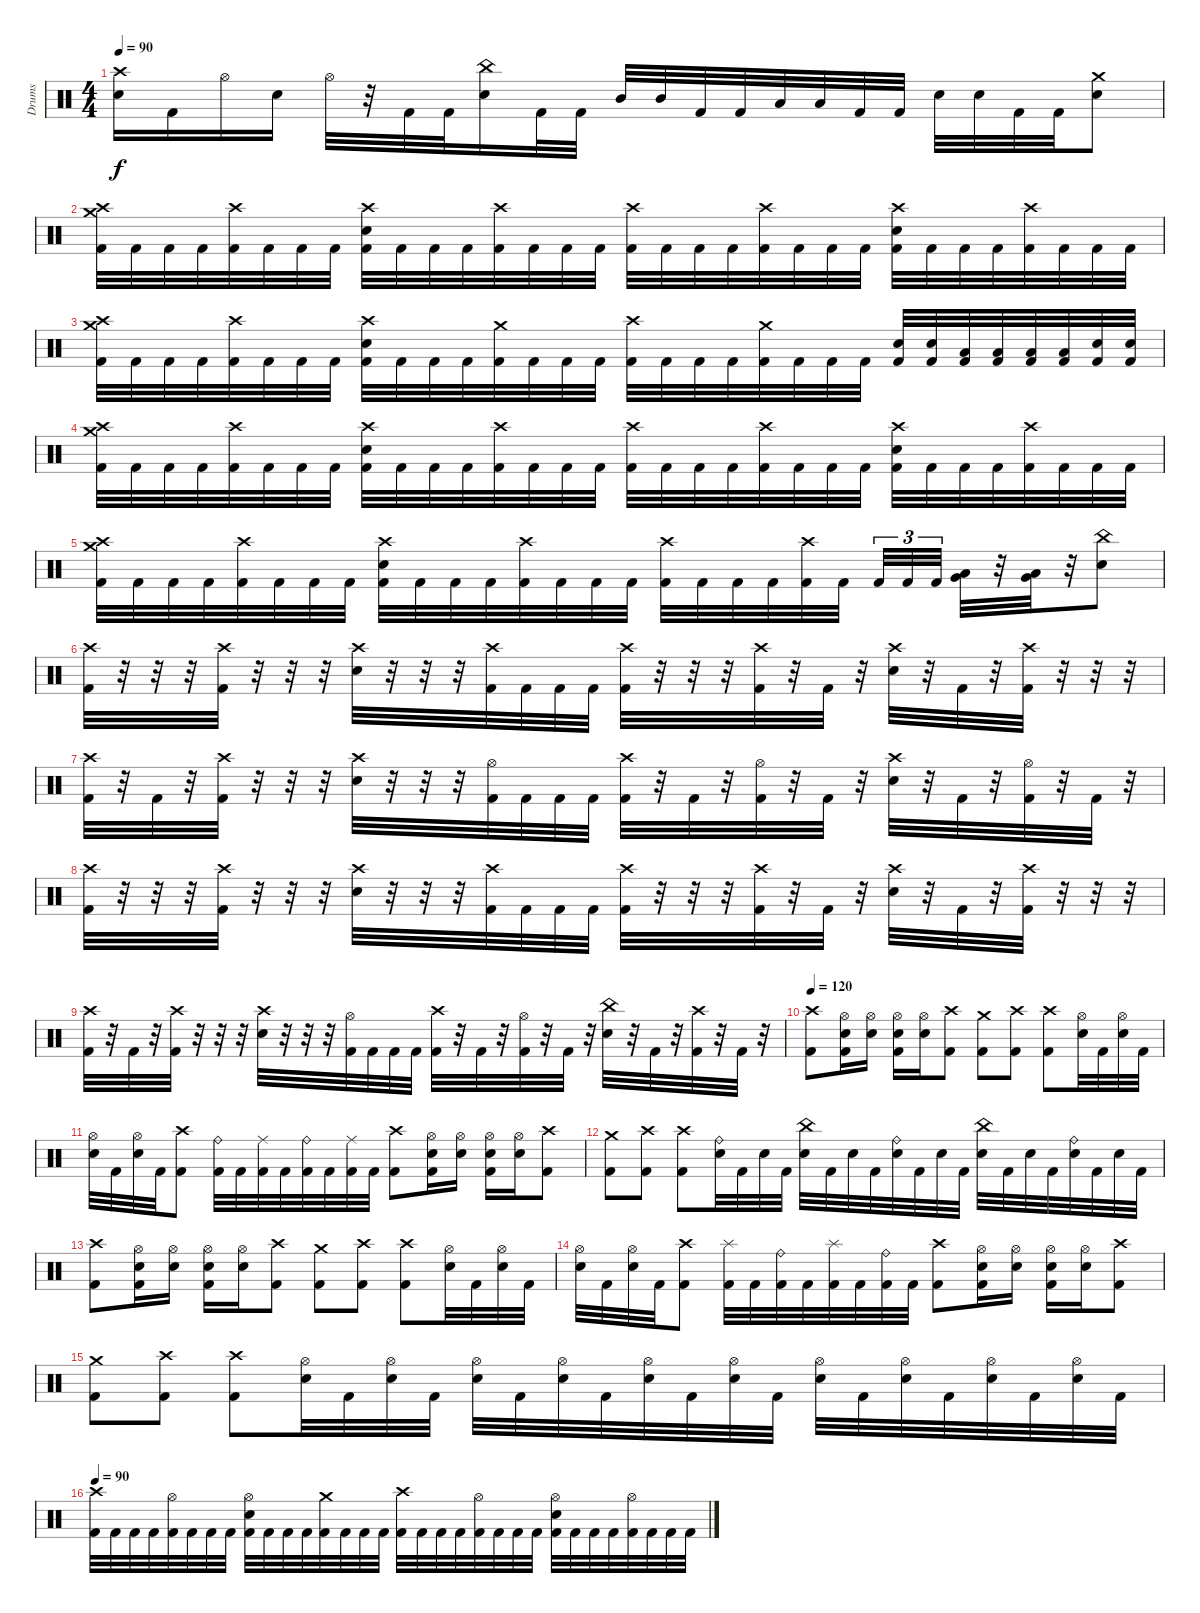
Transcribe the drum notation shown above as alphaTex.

\track ("Drums" "Drums") {instrument percussion}
\staff {score}
\articulation defaults
\ts (4 4)
\tempo 90
\clef neutral
\ks c
("Crash high (hit)" "Electric Snare (hit)").16{dy f} "Kick (hit) 2".16 "Hi-Hat (open)".16 "Electric Snare (hit)".16 "Hi-Hat (open)".32 r.32 "Kick (hit) 2".32 "Kick (hit) 2".32 ("China (hit)" "Electric Snare (hit)").16 "Kick (hit) 2".32 "Kick (hit) 2".32 "Mid Tom (hit)".32 "Mid Tom (hit)".32 "Kick (hit) 2".32 "Kick (hit) 2".32 "Low Tom (hit)".32 "Low Tom (hit)".32 "Kick (hit) 2".32 "Kick (hit) 2".32 "Electric Snare (hit)".32 "Electric Snare (hit)".32 "Kick (hit) 2".32 "Kick (hit) 2".32 ("Crash medium (hit)" "Electric Snare (hit)").8 |
("Crash high (hit)" "Crash medium (hit)" "Kick (hit) 2").32 "Kick (hit) 2".32 "Kick (hit) 2".32 "Kick (hit) 2".32 ("Crash high (hit)" "Kick (hit) 2").32 "Kick (hit) 2".32 "Kick (hit) 2".32 "Kick (hit) 2".32 ("Crash high (hit)" "Electric Snare (hit)" "Kick (hit) 2").32 "Kick (hit) 2".32 "Kick (hit) 2".32 "Kick (hit) 2".32 ("Crash high (hit)" "Kick (hit) 2").32 "Kick (hit) 2".32 "Kick (hit) 2".32 "Kick (hit) 2".32 ("Crash high (hit)" "Kick (hit) 2").32 "Kick (hit) 2".32 "Kick (hit) 2".32 "Kick (hit) 2".32 ("Crash high (hit)" "Kick (hit) 2").32 "Kick (hit) 2".32 "Kick (hit) 2".32 "Kick (hit) 2".32 ("Crash high (hit)" "Electric Snare (hit)" "Kick (hit) 2").32 "Kick (hit) 2".32 "Kick (hit) 2".32 "Kick (hit) 2".32 ("Crash high (hit)" "Kick (hit) 2").32 "Kick (hit) 2".32 "Kick (hit) 2".32 "Kick (hit) 2".32 |
("Crash high (hit)" "Crash medium (hit)" "Kick (hit) 2").32 "Kick (hit) 2".32 "Kick (hit) 2".32 "Kick (hit) 2".32 ("Crash high (hit)" "Kick (hit) 2").32 "Kick (hit) 2".32 "Kick (hit) 2".32 "Kick (hit) 2".32 ("Crash high (hit)" "Electric Snare (hit)" "Kick (hit) 2").32 "Kick (hit) 2".32 "Kick (hit) 2".32 "Kick (hit) 2".32 ("Crash medium (hit)" "Kick (hit) 2").32 "Kick (hit) 2".32 "Kick (hit) 2".32 "Kick (hit) 2".32 ("Crash high (hit)" "Kick (hit) 2").32 "Kick (hit) 2".32 "Kick (hit) 2".32 "Kick (hit) 2".32 ("Crash medium (hit)" "Kick (hit) 2").32 "Kick (hit) 2".32 "Kick (hit) 2".32 "Kick (hit) 2".32 ("Electric Snare (hit)" "Kick (hit) 2").32 ("Electric Snare (hit)" "Kick (hit) 2").32 ("Low Tom (hit)" "Kick (hit) 2").32 ("Low Tom (hit)" "Kick (hit) 2").32 ("Low Tom (hit)" "Kick (hit) 2").32 ("Low Tom (hit)" "Kick (hit) 2").32 ("Electric Snare (hit)" "Kick (hit) 2").32 ("Electric Snare (hit)" "Kick (hit) 2").32 |
("Crash high (hit)" "Crash medium (hit)" "Kick (hit) 2").32 "Kick (hit) 2".32 "Kick (hit) 2".32 "Kick (hit) 2".32 ("Crash high (hit)" "Kick (hit) 2").32 "Kick (hit) 2".32 "Kick (hit) 2".32 "Kick (hit) 2".32 ("Crash high (hit)" "Electric Snare (hit)" "Kick (hit) 2").32 "Kick (hit) 2".32 "Kick (hit) 2".32 "Kick (hit) 2".32 ("Crash high (hit)" "Kick (hit) 2").32 "Kick (hit) 2".32 "Kick (hit) 2".32 "Kick (hit) 2".32 ("Crash high (hit)" "Kick (hit) 2").32 "Kick (hit) 2".32 "Kick (hit) 2".32 "Kick (hit) 2".32 ("Crash high (hit)" "Kick (hit) 2").32 "Kick (hit) 2".32 "Kick (hit) 2".32 "Kick (hit) 2".32 ("Crash high (hit)" "Electric Snare (hit)" "Kick (hit) 2").32 "Kick (hit) 2".32 "Kick (hit) 2".32 "Kick (hit) 2".32 ("Crash high (hit)" "Kick (hit) 2").32 "Kick (hit) 2".32 "Kick (hit) 2".32 "Kick (hit) 2".32 |
("Crash high (hit)" "Crash medium (hit)" "Kick (hit) 2").32 "Kick (hit) 2".32 "Kick (hit) 2".32 "Kick (hit) 2".32 ("Crash high (hit)" "Kick (hit) 2").32 "Kick (hit) 2".32 "Kick (hit) 2".32 "Kick (hit) 2".32 ("Crash high (hit)" "Electric Snare (hit)" "Kick (hit) 2").32 "Kick (hit) 2".32 "Kick (hit) 2".32 "Kick (hit) 2".32 ("Crash high (hit)" "Kick (hit) 2").32 "Kick (hit) 2".32 "Kick (hit) 2".32 "Kick (hit) 2".32 ("Crash high (hit)" "Kick (hit) 2").32 "Kick (hit) 2".32 "Kick (hit) 2".32 "Kick (hit) 2".32 ("Crash high (hit)" "Kick (hit) 2").32 "Kick (hit) 2".32{beam splitsecondary} "Kick (hit) 2".32{tu (3 2)} "Kick (hit) 2".32{tu (3 2)} "Kick (hit) 2".32{tu (3 2)} ("Low Tom (hit)" "Very Low Tom (hit)").32 r.32 ("Low Tom (hit)" "Very Low Tom (hit)").32 r.32 ("China (hit)" "Electric Snare (hit)").8 |
("Crash high (hit)" "Kick (hit) 2").32 r.32 r.32 r.32 ("Crash high (hit)" "Kick (hit) 2").32 r.32 r.32 r.32 ("Crash high (hit)" "Electric Snare (hit)").32 r.32 r.32 r.32 ("Crash high (hit)" "Kick (hit) 2").32 "Kick (hit) 2".32 "Kick (hit) 2".32 "Kick (hit) 2".32 ("Crash high (hit)" "Kick (hit) 2").32 r.32 r.32 r.32 ("Crash high (hit)" "Kick (hit) 2").32 r.32 "Kick (hit) 2".32 r.32 ("Crash high (hit)" "Electric Snare (hit)").32 r.32 "Kick (hit) 2".32 r.32 ("Crash high (hit)" "Kick (hit) 2").32 r.32 r.32 r.32 |
("Crash high (hit)" "Kick (hit) 2").32 r.32 "Kick (hit) 2".32 r.32 ("Crash high (hit)" "Kick (hit) 2").32 r.32 r.32 r.32 ("Crash high (hit)" "Electric Snare (hit)").32 r.32 r.32 r.32 ("Hi-Hat (open)" "Kick (hit) 2").32 "Kick (hit) 2".32 "Kick (hit) 2".32 "Kick (hit) 2".32 ("Crash high (hit)" "Kick (hit) 2").32 r.32 "Kick (hit) 2".32 r.32 ("Hi-Hat (open)" "Kick (hit) 2").32 r.32 "Kick (hit) 2".32 r.32 ("Crash high (hit)" "Electric Snare (hit)").32 r.32 "Kick (hit) 2".32 r.32 ("Hi-Hat (open)" "Kick (hit) 2").32 r.32 "Kick (hit) 2".32 r.32 |
("Crash high (hit)" "Kick (hit) 2").32 r.32 r.32 r.32 ("Crash high (hit)" "Kick (hit) 2").32 r.32 r.32 r.32 ("Crash high (hit)" "Electric Snare (hit)").32 r.32 r.32 r.32 ("Crash high (hit)" "Kick (hit) 2").32 "Kick (hit) 2".32 "Kick (hit) 2".32 "Kick (hit) 2".32 ("Crash high (hit)" "Kick (hit) 2").32 r.32 r.32 r.32 ("Crash high (hit)" "Kick (hit) 2").32 r.32 "Kick (hit) 2".32 r.32 ("Crash high (hit)" "Electric Snare (hit)").32 r.32 "Kick (hit) 2".32 r.32 ("Crash high (hit)" "Kick (hit) 2").32 r.32 r.32 r.32 |
("Crash high (hit)" "Kick (hit) 2").32 r.32 "Kick (hit) 2".32 r.32 ("Crash high (hit)" "Kick (hit) 2").32 r.32 r.32 r.32 ("Crash high (hit)" "Electric Snare (hit)").32 r.32 r.32 r.32 ("Hi-Hat (open)" "Kick (hit) 2").32 "Kick (hit) 2".32 "Kick (hit) 2".32 "Kick (hit) 2".32 ("Crash high (hit)" "Kick (hit) 2").32 r.32 "Kick (hit) 2".32 r.32 ("Hi-Hat (open)" "Kick (hit) 2").32 r.32 "Kick (hit) 2".32 r.32 ("China (hit)" "Electric Snare (hit)").32 r.32 "Kick (hit) 2".32 r.32 ("Crash high (hit)" "Kick (hit) 2").32 r.32 "Kick (hit) 2".32 r.32 |
\tempo 120
("Crash high (hit)" "Kick (hit) 2").8 ("Hi-Hat (open)" "Electric Snare (hit)" "Kick (hit) 2").16 ("Hi-Hat (open)" "Electric Snare (hit)").16 ("Hi-Hat (open)" "Electric Snare (hit)" "Kick (hit) 2").16 ("Hi-Hat (open)" "Electric Snare (hit)").16 ("Crash high (hit)" "Kick (hit) 2").8 ("Crash medium (hit)" "Kick (hit) 2").8 ("Crash high (hit)" "Kick (hit) 2").8 ("Crash high (hit)" "Kick (hit) 2").8 ("Hi-Hat (open)" "Electric Snare (hit)").32 "Kick (hit) 2".32 ("Hi-Hat (open)" "Electric Snare (hit)").32 "Kick (hit) 2".32 |
("Hi-Hat (open)" "Electric Snare (hit)").32 "Kick (hit) 2".32 ("Hi-Hat (open)" "Electric Snare (hit)").32 "Kick (hit) 2".32 ("Crash high (hit)" "Kick (hit) 2").8 ("Ride (bell)" "Kick (hit) 2").32 "Kick (hit) 2".32 ("Ride (middle)" "Kick (hit) 2").32 "Kick (hit) 2".32 ("Ride (bell)" "Kick (hit) 2").32 "Kick (hit) 2".32 ("Ride (middle)" "Kick (hit) 2").32 "Kick (hit) 2".32 ("Crash high (hit)" "Kick (hit) 2").8 ("Hi-Hat (open)" "Electric Snare (hit)" "Kick (hit) 2").16 ("Hi-Hat (open)" "Electric Snare (hit)").16 ("Hi-Hat (open)" "Electric Snare (hit)" "Kick (hit) 2").16 ("Hi-Hat (open)" "Electric Snare (hit)").16 ("Crash high (hit)" "Kick (hit) 2").8 |
("Crash medium (hit)" "Kick (hit) 2").8 ("Crash high (hit)" "Kick (hit) 2").8 ("Crash high (hit)" "Kick (hit) 2").8 ("Ride (bell)" "Electric Snare (hit)").32 "Kick (hit) 2".32 "Electric Snare (hit)".32 "Kick (hit) 2".32 ("China (hit)" "Electric Snare (hit)").32 "Kick (hit) 2".32 "Electric Snare (hit)".32 "Kick (hit) 2".32 ("Ride (bell)" "Electric Snare (hit)").32 "Kick (hit) 2".32 "Electric Snare (hit)".32 "Kick (hit) 2".32 ("China (hit)" "Electric Snare (hit)").32 "Kick (hit) 2".32 "Electric Snare (hit)".32 "Kick (hit) 2".32 ("Ride (bell)" "Electric Snare (hit)").32 "Kick (hit) 2".32 "Electric Snare (hit)".32 "Kick (hit) 2".32 |
("Crash high (hit)" "Kick (hit) 2").8 ("Hi-Hat (open)" "Electric Snare (hit)" "Kick (hit) 2").16 ("Hi-Hat (open)" "Electric Snare (hit)").16 ("Hi-Hat (open)" "Electric Snare (hit)" "Kick (hit) 2").16 ("Hi-Hat (open)" "Electric Snare (hit)").16 ("Crash high (hit)" "Kick (hit) 2").8 ("Crash medium (hit)" "Kick (hit) 2").8 ("Crash high (hit)" "Kick (hit) 2").8 ("Crash high (hit)" "Kick (hit) 2").8 ("Hi-Hat (open)" "Electric Snare (hit)").32 "Kick (hit) 2".32 ("Hi-Hat (open)" "Electric Snare (hit)").32 "Kick (hit) 2".32 |
("Hi-Hat (open)" "Electric Snare (hit)").32 "Kick (hit) 2".32 ("Hi-Hat (open)" "Electric Snare (hit)").32 "Kick (hit) 2".32 ("Crash high (hit)" "Kick (hit) 2").8 ("Splash (hit)" "Kick (hit) 2").32 "Kick (hit) 2".32 ("Ride (bell)" "Kick (hit) 2").32 "Kick (hit) 2".32 ("Splash (hit)" "Kick (hit) 2").32 "Kick (hit) 2".32 ("Ride (bell)" "Kick (hit) 2").32 "Kick (hit) 2".32 ("Crash high (hit)" "Kick (hit) 2").8 ("Hi-Hat (open)" "Electric Snare (hit)" "Kick (hit) 2").16 ("Hi-Hat (open)" "Electric Snare (hit)").16 ("Hi-Hat (open)" "Electric Snare (hit)" "Kick (hit) 2").16 ("Hi-Hat (open)" "Electric Snare (hit)").16 ("Crash high (hit)" "Kick (hit) 2").8 |
("Crash medium (hit)" "Kick (hit) 2").8 ("Crash high (hit)" "Kick (hit) 2").8 ("Crash high (hit)" "Kick (hit) 2").8 ("Hi-Hat (open)" "Electric Snare (hit)").32 "Kick (hit) 2".32 ("Hi-Hat (open)" "Electric Snare (hit)").32 "Kick (hit) 2".32 ("Hi-Hat (open)" "Electric Snare (hit)").32 "Kick (hit) 2".32 ("Hi-Hat (open)" "Electric Snare (hit)").32 "Kick (hit) 2".32 ("Hi-Hat (open)" "Electric Snare (hit)").32 "Kick (hit) 2".32 ("Hi-Hat (open)" "Electric Snare (hit)").32 "Kick (hit) 2".32 ("Hi-Hat (open)" "Electric Snare (hit)").32 "Kick (hit) 2".32 ("Hi-Hat (open)" "Electric Snare (hit)").32 "Kick (hit) 2".32 ("Hi-Hat (open)" "Electric Snare (hit)").32 "Kick (hit) 2".32 ("Hi-Hat (open)" "Electric Snare (hit)").32 "Kick (hit) 2".32 |
\tempo 90
("Crash high (hit)" "Kick (hit) 2").32 "Kick (hit) 2".32 "Kick (hit) 2".32 "Kick (hit) 2".32 ("Hi-Hat (open)" "Kick (hit) 2").32 "Kick (hit) 2".32 "Kick (hit) 2".32 "Kick (hit) 2".32 ("Hi-Hat (open)" "Electric Snare (hit)" "Kick (hit) 2").32 "Kick (hit) 2".32 "Kick (hit) 2".32 "Kick (hit) 2".32 ("Crash medium (hit)" "Kick (hit) 2").32 "Kick (hit) 2".32 "Kick (hit) 2".32 "Kick (hit) 2".32 ("Crash high (hit)" "Kick (hit) 2").32 "Kick (hit) 2".32 "Kick (hit) 2".32 "Kick (hit) 2".32 ("Hi-Hat (open)" "Kick (hit) 2").32 "Kick (hit) 2".32 "Kick (hit) 2".32 "Kick (hit) 2".32 ("Hi-Hat (open)" "Electric Snare (hit)" "Kick (hit) 2").32 "Kick (hit) 2".32 "Kick (hit) 2".32 "Kick (hit) 2".32 ("Hi-Hat (open)" "Kick (hit) 2").32 "Kick (hit) 2".32 "Kick (hit) 2".32 "Kick (hit) 2".32
